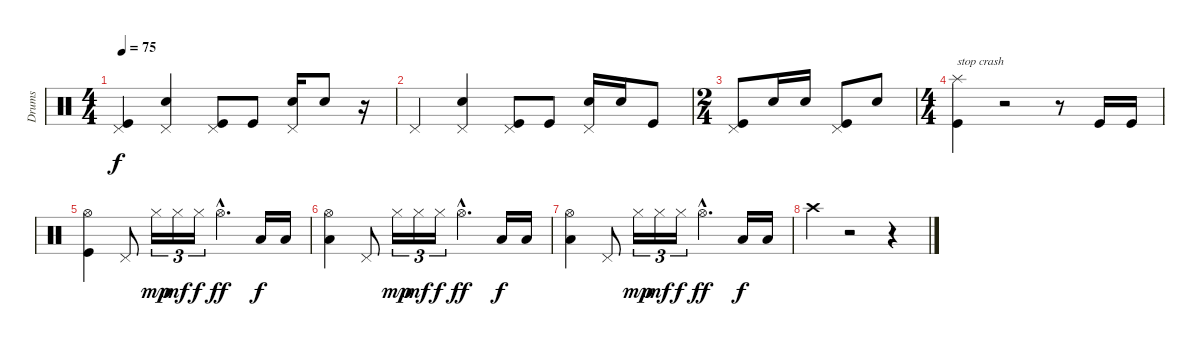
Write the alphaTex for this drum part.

\track ("Drums" "Drums") {instrument percussion}
\staff {score}
\articulation defaults
\ts (4 4)
\tempo 75
\clef neutral
\ks aminor
("Pedal Hi-Hat (hit)" "Kick (hit)").4{dy f} ("Pedal Hi-Hat (hit)" "Snare (hit) 2").4 ("Pedal Hi-Hat (hit)" "Kick (hit)").8 "Kick (hit)".8 ("Pedal Hi-Hat (hit)" "Snare (hit) 2").16 "Snare (hit) 2".8 r.16 |
"Pedal Hi-Hat (hit)".4 ("Pedal Hi-Hat (hit)" "Snare (hit) 2").4 ("Pedal Hi-Hat (hit)" "Kick (hit)").8 "Kick (hit)".8 ("Pedal Hi-Hat (hit)" "Snare (hit) 2").16 "Snare (hit) 2".16 "Kick (hit)".8 |
\ts (2 4)
("Pedal Hi-Hat (hit)" "Kick (hit)").8 "Snare (hit) 2".16 "Snare (hit) 2".16 ("Pedal Hi-Hat (hit)" "Kick (hit)").8 "Snare (hit) 2".8 |
\ts (4 4)
("Splash (hit)" "Kick (hit)").4{txt "stop crash"} r.2 r.8 "Kick (hit)".16 "Kick (hit)".16 |
("Hi-Hat (open)" "Kick (hit)").4 "Pedal Hi-Hat (hit)".8 "Hi-Hat (closed)".16{tu (3 2) dy mp} "Hi-Hat (closed)".16{tu (3 2) dy mf} "Hi-Hat (closed)".16{tu (3 2) dy f} "Hi-Hat (open)"{hac}.4{d dy ff} "Low Floor Tom (hit)".16{dy f} "Low Floor Tom (hit)".16 |
("Hi-Hat (open)" "Low Floor Tom (hit)").4 "Pedal Hi-Hat (hit)".8 "Hi-Hat (closed)".16{tu (3 2) dy mp} "Hi-Hat (closed)".16{tu (3 2) dy mf} "Hi-Hat (closed)".16{tu (3 2) dy f} "Hi-Hat (open)"{hac}.4{d dy ff} "Low Floor Tom (hit)".16{dy f} "Low Floor Tom (hit)".16 |
("Hi-Hat (open)" "Low Floor Tom (hit)").4 "Pedal Hi-Hat (hit)".8 "Hi-Hat (closed)".16{tu (3 2) dy mp} "Hi-Hat (closed)".16{tu (3 2) dy mf} "Hi-Hat (closed)".16{tu (3 2) dy f} "Hi-Hat (open)"{hac}.4{d dy ff} "Low Floor Tom (hit)".16{dy f} "Low Floor Tom (hit)".16 |
"Crash high (hit)".4 r.2 r.4
